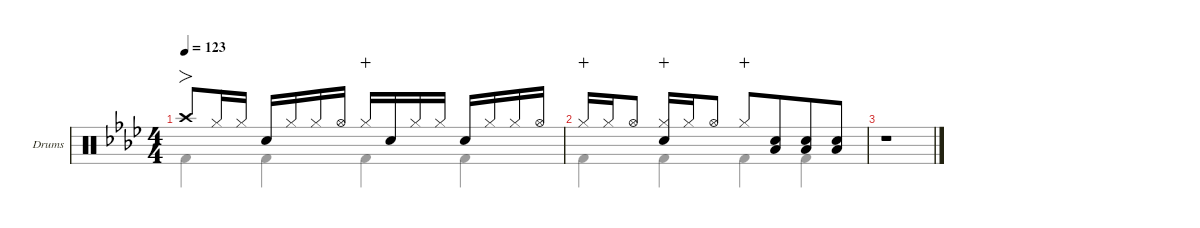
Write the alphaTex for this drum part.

\defaultSystemsLayout 4
\hideDynamics
\bracketExtendMode nobrackets
\firstSystemTrackNameOrientation horizontal
\track ("Drums" "Drums") {defaultSystemsLayout 4 instrument percussion}
\staff {score}
\articulation defaults
\voice
\ts (4 4)
\tempo 123
\clef neutral
\scale
0.363477
\ks ab "Crash high (hit)"{acc forcenatural}.8{fo dy f beam Up} "Hi-Hat (closed)"{acc forcenatural}.16{beam Up} "Hi-Hat (closed)"{acc forcenatural}.16{dy mp beam Up} "Snare (hit) 2"{acc forcenatural}.16{dy f beam Up} "Hi-Hat (closed)"{acc forcenatural}.16{dy mp beam Up} "Hi-Hat (closed)"{acc forcenatural}.16{dy f beam Up} "Hi-Hat (open)"{acc forcenatural}.16{beam Up} "Hi-Hat (closed)"{acc forcenatural}.16{dy mp wahc beam Up} "Snare (hit) 2"{acc forcenatural}.16{dy f beam Up} "Hi-Hat (closed)"{acc forcenatural}.16{beam Up} "Hi-Hat (closed)"{acc forcenatural}.16{dy mp beam Up} "Snare (hit) 2"{acc forcenatural}.16{dy f beam Up} "Hi-Hat (closed)"{acc forcenatural}.16{dy mp beam Up} "Hi-Hat (closed)"{acc forcenatural}.16{dy f beam Up} "Hi-Hat (open)"{acc forcenatural}.16{beam Up}
|
\scale
0.313043 "Hi-Hat (closed)"{acc forcenatural}.16{dy mp wahc beam Up} "Hi-Hat (closed)"{acc forcenatural}.16{dy f beam Up} "Hi-Hat (open)"{acc forcenatural}.8{beam Up} ("Snare (hit) 2"{acc forcenatural} "Hi-Hat (closed)"{acc forcenatural}).16{wahc beam Up} "Hi-Hat (closed)"{acc forcenatural}.16{dy mp beam Up} "Hi-Hat (open)"{acc forcenatural}.8{dy f beam Up} "Hi-Hat (closed)"{acc forcenatural}.8{dy mp wahc beam Up beam merge} ("Snare (hit) 2"{acc forcenatural} "Low Tom (hit)"{acc forcenatural}).8{dy f beam Up beam merge} ("Snare (hit) 2"{acc forcenatural} "Low Tom (hit)"{acc forcenatural}).8{beam Up beam merge} ("Snare (hit) 2"{acc forcenatural} "Low Tom (hit)"{acc forcenatural}).8{beam Up} |
\scale
0.323481 r.1{beam Up}
\voice
\clef neutral
\ottava regular
\simile none
\scale
0.363477
\ks ab "Kick (hit) 2"{acc forcenatural}.4{dy f beam Down} "Kick (hit) 2"{acc forcenatural}.4{beam Down} "Kick (hit) 2"{acc forcenatural}.4{beam Down} "Kick (hit) 2"{acc forcenatural}.4{beam Down}
|
\scale
0.313043 "Kick (hit) 2"{acc forcenatural}.4{beam Down} "Kick (hit) 2"{acc forcenatural}.4{beam Down} "Kick (hit) 2"{acc forcenatural}.4{beam Down} "Kick (hit) 2"{acc forcenatural}.4{beam Down} |
\scale
0.323481 r.1{beam Down}
